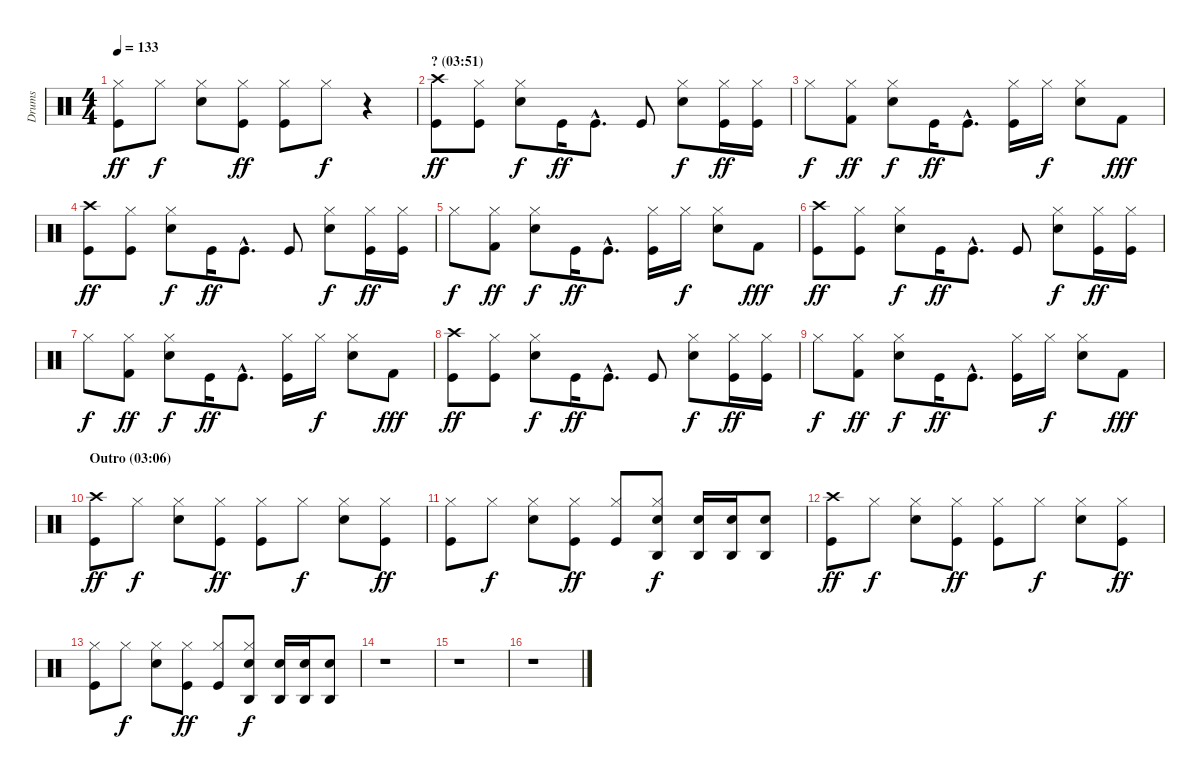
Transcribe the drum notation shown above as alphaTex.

\track ("Drums" "Drums") {instrument percussion}
\staff {score}
\articulation defaults
\ts (4 4)
\tempo 133
\clef neutral
\ks c
("Hi-Hat (closed)" "Kick (hit)").8{dy ff} "Hi-Hat (closed)".8{dy f} ("Hi-Hat (closed)" "Electric Snare (hit)").8 ("Hi-Hat (closed)" "Kick (hit)").8{dy ff} ("Hi-Hat (closed)" "Kick (hit)").8 "Hi-Hat (closed)".8{dy f} r.4 |
\section ("" "? (03:51)")
("Crash high (hit)" "Kick (hit)").8{dy ff} ("Hi-Hat (closed)" "Kick (hit)").8 ("Hi-Hat (closed)" "Electric Snare (hit)").8{dy f} "Kick (hit)".16{dy ff} "Kick (hit)"{hac}.8{d} "Kick (hit)".8 ("Hi-Hat (closed)" "Electric Snare (hit)").8{dy f} ("Hi-Hat (closed)" "Kick (hit)").16{dy ff} ("Hi-Hat (closed)" "Kick (hit)").16 |
"Hi-Hat (closed)".8{dy f} ("Hi-Hat (closed)" "Kick (hit) 2").8{dy ff} ("Hi-Hat (closed)" "Electric Snare (hit)").8{dy f} "Kick (hit)".16{dy ff} "Kick (hit)"{hac}.8{d} ("Hi-Hat (closed)" "Kick (hit)").16 "Hi-Hat (closed)".16{dy f} ("Hi-Hat (closed)" "Electric Snare (hit)").8 "Kick (hit) 2".8{dy fff} |
("Crash high (hit)" "Kick (hit)").8{dy ff} ("Hi-Hat (closed)" "Kick (hit)").8 ("Hi-Hat (closed)" "Electric Snare (hit)").8{dy f} "Kick (hit)".16{dy ff} "Kick (hit)"{hac}.8{d} "Kick (hit)".8 ("Hi-Hat (closed)" "Electric Snare (hit)").8{dy f} ("Hi-Hat (closed)" "Kick (hit)").16{dy ff} ("Hi-Hat (closed)" "Kick (hit)").16 |
"Hi-Hat (closed)".8{dy f} ("Hi-Hat (closed)" "Kick (hit) 2").8{dy ff} ("Hi-Hat (closed)" "Electric Snare (hit)").8{dy f} "Kick (hit)".16{dy ff} "Kick (hit)"{hac}.8{d} ("Hi-Hat (closed)" "Kick (hit)").16 "Hi-Hat (closed)".16{dy f} ("Hi-Hat (closed)" "Electric Snare (hit)").8 "Kick (hit) 2".8{dy fff} |
("Crash high (hit)" "Kick (hit)").8{dy ff} ("Hi-Hat (closed)" "Kick (hit)").8 ("Hi-Hat (closed)" "Electric Snare (hit)").8{dy f} "Kick (hit)".16{dy ff} "Kick (hit)"{hac}.8{d} "Kick (hit)".8 ("Hi-Hat (closed)" "Electric Snare (hit)").8{dy f} ("Hi-Hat (closed)" "Kick (hit)").16{dy ff} ("Hi-Hat (closed)" "Kick (hit)").16 |
"Hi-Hat (closed)".8{dy f} ("Hi-Hat (closed)" "Kick (hit) 2").8{dy ff} ("Hi-Hat (closed)" "Electric Snare (hit)").8{dy f} "Kick (hit)".16{dy ff} "Kick (hit)"{hac}.8{d} ("Hi-Hat (closed)" "Kick (hit)").16 "Hi-Hat (closed)".16{dy f} ("Hi-Hat (closed)" "Electric Snare (hit)").8 "Kick (hit) 2".8{dy fff} |
("Crash high (hit)" "Kick (hit)").8{dy ff} ("Hi-Hat (closed)" "Kick (hit)").8 ("Hi-Hat (closed)" "Electric Snare (hit)").8{dy f} "Kick (hit)".16{dy ff} "Kick (hit)"{hac}.8{d} "Kick (hit)".8 ("Hi-Hat (closed)" "Electric Snare (hit)").8{dy f} ("Hi-Hat (closed)" "Kick (hit)").16{dy ff} ("Hi-Hat (closed)" "Kick (hit)").16 |
"Hi-Hat (closed)".8{dy f} ("Hi-Hat (closed)" "Kick (hit) 2").8{dy ff} ("Hi-Hat (closed)" "Electric Snare (hit)").8{dy f} "Kick (hit)".16{dy ff} "Kick (hit)"{hac}.8{d} ("Hi-Hat (closed)" "Kick (hit)").16 "Hi-Hat (closed)".16{dy f} ("Hi-Hat (closed)" "Electric Snare (hit)").8 "Kick (hit) 2".8{dy fff} |
\section ("" "Outro (03:06)")
("Crash high (hit)" "Kick (hit)").8{dy ff volume 3} "Hi-Hat (closed)".8{dy f} ("Hi-Hat (closed)" "Electric Snare (hit)").8 ("Hi-Hat (closed)" "Kick (hit)").8{dy ff} ("Hi-Hat (closed)" "Kick (hit)").8 "Hi-Hat (closed)".8{dy f} ("Hi-Hat (closed)" "Electric Snare (hit)").8 ("Hi-Hat (closed)" "Kick (hit)").8{dy ff} |
("Hi-Hat (closed)" "Kick (hit)").8 "Hi-Hat (closed)".8{dy f} ("Hi-Hat (closed)" "Electric Snare (hit)").8 ("Hi-Hat (closed)" "Kick (hit)").8{dy ff} ("Hi-Hat (closed)" "Kick (hit)").8 ("Agogo high (hit)" "Hi-Hat (closed)" "Electric Snare (hit)").8{dy f} ("Agogo high (hit)" "Electric Snare (hit)").16 ("Agogo high (hit)" "Electric Snare (hit)").16 ("Agogo high (hit)" "Electric Snare (hit)").8 |
("Crash high (hit)" "Kick (hit)").8{dy ff} "Hi-Hat (closed)".8{dy f} ("Hi-Hat (closed)" "Electric Snare (hit)").8 ("Hi-Hat (closed)" "Kick (hit)").8{dy ff} ("Hi-Hat (closed)" "Kick (hit)").8 "Hi-Hat (closed)".8{dy f} ("Hi-Hat (closed)" "Electric Snare (hit)").8 ("Hi-Hat (closed)" "Kick (hit)").8{dy ff} |
("Hi-Hat (closed)" "Kick (hit)").8{volume 0} "Hi-Hat (closed)".8{dy f} ("Hi-Hat (closed)" "Electric Snare (hit)").8 ("Hi-Hat (closed)" "Kick (hit)").8{dy ff} ("Hi-Hat (closed)" "Kick (hit)").8 ("Agogo high (hit)" "Hi-Hat (closed)" "Electric Snare (hit)").8{dy f} ("Agogo high (hit)" "Electric Snare (hit)").16 ("Agogo high (hit)" "Electric Snare (hit)").16 ("Agogo high (hit)" "Electric Snare (hit)").8 |
r.1 |
r.1 |
r.1
